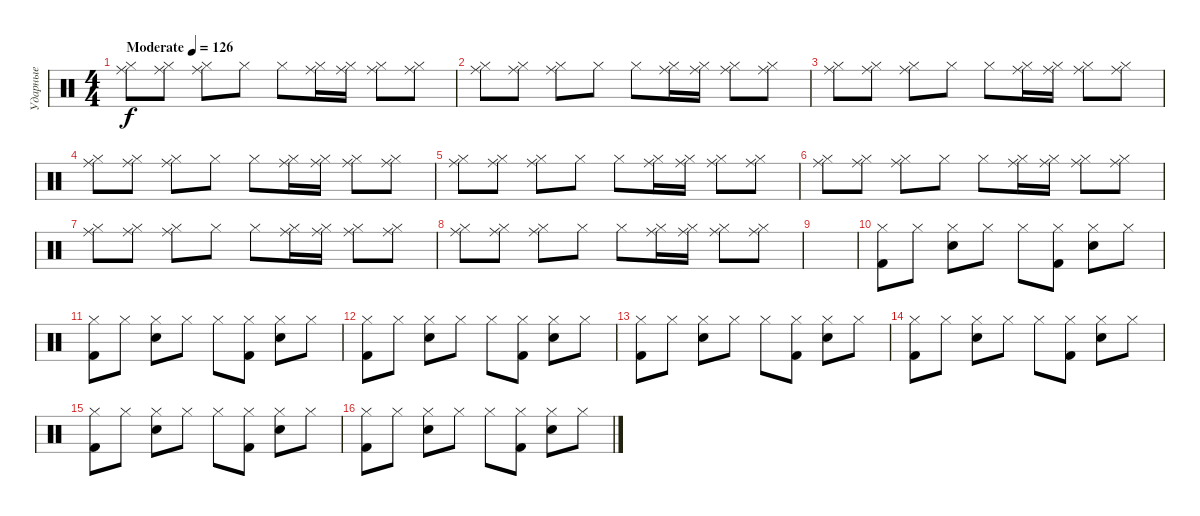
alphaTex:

\track ("Ударные" "Ударные") {instrument percussion}
\staff {score}
\articulation defaults
\ts (4 4)
\tempo (126 "Moderate")
\clef neutral
\ks c
("Hi-Hat (closed)" "Ride (middle)").8{dy f} ("Hi-Hat (closed)" "Ride (middle)").8 ("Hi-Hat (closed)" "Ride (middle)").8 "Hi-Hat (closed)".8 "Hi-Hat (closed)".8 ("Hi-Hat (closed)" "Ride (middle)").16 ("Hi-Hat (closed)" "Ride (middle)").16 ("Hi-Hat (closed)" "Ride (middle)").8 ("Hi-Hat (closed)" "Ride (middle)").8 |
("Hi-Hat (closed)" "Ride (middle)").8 ("Hi-Hat (closed)" "Ride (middle)").8 ("Hi-Hat (closed)" "Ride (middle)").8 "Hi-Hat (closed)".8 "Hi-Hat (closed)".8 ("Hi-Hat (closed)" "Ride (middle)").16 ("Hi-Hat (closed)" "Ride (middle)").16 ("Hi-Hat (closed)" "Ride (middle)").8 ("Hi-Hat (closed)" "Ride (middle)").8 |
("Hi-Hat (closed)" "Ride (middle)").8 ("Hi-Hat (closed)" "Ride (middle)").8 ("Hi-Hat (closed)" "Ride (middle)").8 "Hi-Hat (closed)".8 "Hi-Hat (closed)".8 ("Hi-Hat (closed)" "Ride (middle)").16 ("Hi-Hat (closed)" "Ride (middle)").16 ("Hi-Hat (closed)" "Ride (middle)").8 ("Hi-Hat (closed)" "Ride (middle)").8 |
("Hi-Hat (closed)" "Ride (middle)").8 ("Hi-Hat (closed)" "Ride (middle)").8 ("Hi-Hat (closed)" "Ride (middle)").8 "Hi-Hat (closed)".8 "Hi-Hat (closed)".8 ("Hi-Hat (closed)" "Ride (middle)").16 ("Hi-Hat (closed)" "Ride (middle)").16 ("Hi-Hat (closed)" "Ride (middle)").8 ("Hi-Hat (closed)" "Ride (middle)").8 |
("Hi-Hat (closed)" "Ride (middle)").8 ("Hi-Hat (closed)" "Ride (middle)").8 ("Hi-Hat (closed)" "Ride (middle)").8 "Hi-Hat (closed)".8 "Hi-Hat (closed)".8 ("Hi-Hat (closed)" "Ride (middle)").16 ("Hi-Hat (closed)" "Ride (middle)").16 ("Hi-Hat (closed)" "Ride (middle)").8 ("Hi-Hat (closed)" "Ride (middle)").8 |
("Hi-Hat (closed)" "Ride (middle)").8 ("Hi-Hat (closed)" "Ride (middle)").8 ("Hi-Hat (closed)" "Ride (middle)").8 "Hi-Hat (closed)".8 "Hi-Hat (closed)".8 ("Hi-Hat (closed)" "Ride (middle)").16 ("Hi-Hat (closed)" "Ride (middle)").16 ("Hi-Hat (closed)" "Ride (middle)").8 ("Hi-Hat (closed)" "Ride (middle)").8 |
("Hi-Hat (closed)" "Ride (middle)").8 ("Hi-Hat (closed)" "Ride (middle)").8 ("Hi-Hat (closed)" "Ride (middle)").8 "Hi-Hat (closed)".8 "Hi-Hat (closed)".8 ("Hi-Hat (closed)" "Ride (middle)").16 ("Hi-Hat (closed)" "Ride (middle)").16 ("Hi-Hat (closed)" "Ride (middle)").8 ("Hi-Hat (closed)" "Ride (middle)").8 |
("Hi-Hat (closed)" "Ride (middle)").8 ("Hi-Hat (closed)" "Ride (middle)").8 ("Hi-Hat (closed)" "Ride (middle)").8 "Hi-Hat (closed)".8 "Hi-Hat (closed)".8 ("Hi-Hat (closed)" "Ride (middle)").16 ("Hi-Hat (closed)" "Ride (middle)").16 ("Hi-Hat (closed)" "Ride (middle)").8 ("Hi-Hat (closed)" "Ride (middle)").8 |
|
("Hi-Hat (closed)" "Kick (hit) 2").8 "Hi-Hat (closed)".8 ("Hi-Hat (closed)" "Snare (hit) 2").8 "Hi-Hat (closed)".8 "Hi-Hat (closed)".8 ("Hi-Hat (closed)" "Kick (hit) 2").8 ("Hi-Hat (closed)" "Snare (hit) 2").8 "Hi-Hat (closed)".8 |
("Hi-Hat (closed)" "Kick (hit) 2").8 "Hi-Hat (closed)".8 ("Hi-Hat (closed)" "Snare (hit) 2").8 "Hi-Hat (closed)".8 "Hi-Hat (closed)".8 ("Hi-Hat (closed)" "Kick (hit) 2").8 ("Hi-Hat (closed)" "Snare (hit) 2").8 "Hi-Hat (closed)".8 |
("Hi-Hat (closed)" "Kick (hit) 2").8 "Hi-Hat (closed)".8 ("Hi-Hat (closed)" "Snare (hit) 2").8 "Hi-Hat (closed)".8 "Hi-Hat (closed)".8 ("Hi-Hat (closed)" "Kick (hit) 2").8 ("Hi-Hat (closed)" "Snare (hit) 2").8 "Hi-Hat (closed)".8 |
("Hi-Hat (closed)" "Kick (hit) 2").8 "Hi-Hat (closed)".8 ("Hi-Hat (closed)" "Snare (hit) 2").8 "Hi-Hat (closed)".8 "Hi-Hat (closed)".8 ("Hi-Hat (closed)" "Kick (hit) 2").8 ("Hi-Hat (closed)" "Snare (hit) 2").8 "Hi-Hat (closed)".8 |
("Hi-Hat (closed)" "Kick (hit) 2").8 "Hi-Hat (closed)".8 ("Hi-Hat (closed)" "Snare (hit) 2").8 "Hi-Hat (closed)".8 "Hi-Hat (closed)".8 ("Hi-Hat (closed)" "Kick (hit) 2").8 ("Hi-Hat (closed)" "Snare (hit) 2").8 "Hi-Hat (closed)".8 |
("Hi-Hat (closed)" "Kick (hit) 2").8 "Hi-Hat (closed)".8 ("Hi-Hat (closed)" "Snare (hit) 2").8 "Hi-Hat (closed)".8 "Hi-Hat (closed)".8 ("Hi-Hat (closed)" "Kick (hit) 2").8 ("Hi-Hat (closed)" "Snare (hit) 2").8 "Hi-Hat (closed)".8 |
("Hi-Hat (closed)" "Kick (hit) 2").8 "Hi-Hat (closed)".8 ("Hi-Hat (closed)" "Snare (hit) 2").8 "Hi-Hat (closed)".8 "Hi-Hat (closed)".8 ("Hi-Hat (closed)" "Kick (hit) 2").8 ("Hi-Hat (closed)" "Snare (hit) 2").8 "Hi-Hat (closed)".8
